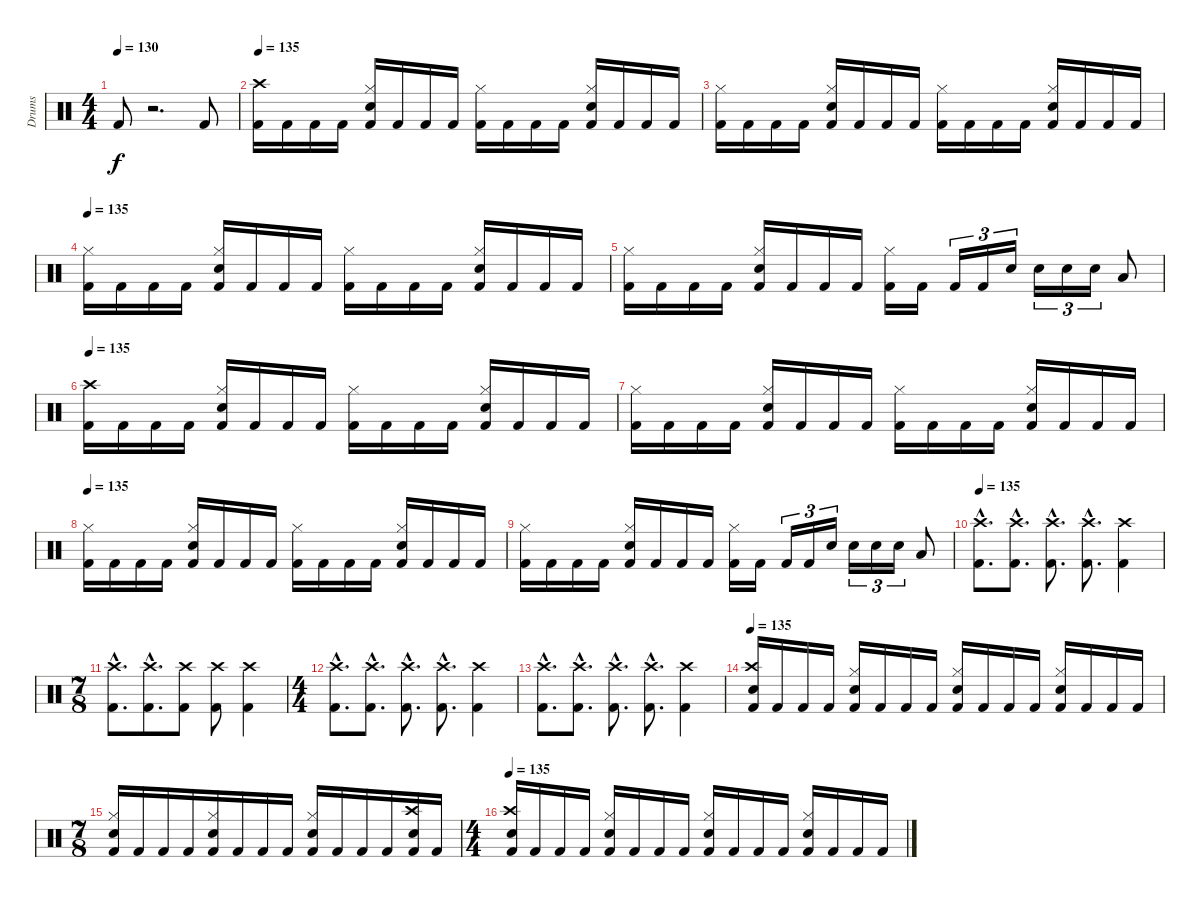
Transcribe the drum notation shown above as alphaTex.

\track ("Drums" "Drums") {instrument percussion}
\staff {score}
\articulation defaults
\ts (4 4)
\tempo 130
\clef neutral
\ks c "Kick (hit) 2".8{dy f}
r.2{d} "Kick (hit) 2".8 |
\tempo 135
("Crash high (hit)" "Kick (hit) 2").16 "Kick (hit) 2".16 "Kick (hit) 2".16 "Kick (hit) 2".16 ("Hi-Hat (closed)" "Electric Snare (hit)" "Kick (hit) 2").16 "Kick (hit) 2".16 "Kick (hit) 2".16 "Kick (hit) 2".16 ("Hi-Hat (closed)" "Kick (hit) 2").16 "Kick (hit) 2".16 "Kick (hit) 2".16 "Kick (hit) 2".16 ("Hi-Hat (closed)" "Electric Snare (hit)" "Kick (hit) 2").16 "Kick (hit) 2".16 "Kick (hit) 2".16 "Kick (hit) 2".16 |
("Hi-Hat (closed)" "Kick (hit) 2").16 "Kick (hit) 2".16 "Kick (hit) 2".16 "Kick (hit) 2".16 ("Hi-Hat (closed)" "Electric Snare (hit)" "Kick (hit) 2").16 "Kick (hit) 2".16 "Kick (hit) 2".16 "Kick (hit) 2".16 ("Hi-Hat (closed)" "Kick (hit) 2").16 "Kick (hit) 2".16 "Kick (hit) 2".16 "Kick (hit) 2".16 ("Hi-Hat (closed)" "Electric Snare (hit)" "Kick (hit) 2").16 "Kick (hit) 2".16 "Kick (hit) 2".16 "Kick (hit) 2".16 |
\tempo 135
("Hi-Hat (closed)" "Kick (hit) 2").16 "Kick (hit) 2".16 "Kick (hit) 2".16 "Kick (hit) 2".16 ("Hi-Hat (closed)" "Electric Snare (hit)" "Kick (hit) 2").16 "Kick (hit) 2".16 "Kick (hit) 2".16 "Kick (hit) 2".16 ("Hi-Hat (closed)" "Kick (hit) 2").16 "Kick (hit) 2".16 "Kick (hit) 2".16 "Kick (hit) 2".16 ("Hi-Hat (closed)" "Electric Snare (hit)" "Kick (hit) 2").16 "Kick (hit) 2".16 "Kick (hit) 2".16 "Kick (hit) 2".16 |
("Hi-Hat (closed)" "Kick (hit) 2").16 "Kick (hit) 2".16 "Kick (hit) 2".16 "Kick (hit) 2".16 ("Hi-Hat (closed)" "Electric Snare (hit)" "Kick (hit) 2").16 "Kick (hit) 2".16 "Kick (hit) 2".16 "Kick (hit) 2".16 ("Hi-Hat (closed)" "Kick (hit) 2").16 "Kick (hit) 2".16 "Kick (hit) 2".16{tu (3 2)} "Kick (hit) 2".16{tu (3 2)} "Electric Snare (hit)".16{tu (3 2)} "Electric Snare (hit)".16{tu (3 2)} "Electric Snare (hit)".16{tu (3 2)} "Electric Snare (hit)".16{tu (3 2)} "Low Tom (hit)".8 |
\tempo 135
("Crash high (hit)" "Kick (hit) 2").16 "Kick (hit) 2".16 "Kick (hit) 2".16 "Kick (hit) 2".16 ("Hi-Hat (closed)" "Electric Snare (hit)" "Kick (hit) 2").16 "Kick (hit) 2".16 "Kick (hit) 2".16 "Kick (hit) 2".16 ("Hi-Hat (closed)" "Kick (hit) 2").16 "Kick (hit) 2".16 "Kick (hit) 2".16 "Kick (hit) 2".16 ("Hi-Hat (closed)" "Electric Snare (hit)" "Kick (hit) 2").16 "Kick (hit) 2".16 "Kick (hit) 2".16 "Kick (hit) 2".16 |
("Hi-Hat (closed)" "Kick (hit) 2").16 "Kick (hit) 2".16 "Kick (hit) 2".16 "Kick (hit) 2".16 ("Hi-Hat (closed)" "Electric Snare (hit)" "Kick (hit) 2").16 "Kick (hit) 2".16 "Kick (hit) 2".16 "Kick (hit) 2".16 ("Hi-Hat (closed)" "Kick (hit) 2").16 "Kick (hit) 2".16 "Kick (hit) 2".16 "Kick (hit) 2".16 ("Hi-Hat (closed)" "Electric Snare (hit)" "Kick (hit) 2").16 "Kick (hit) 2".16 "Kick (hit) 2".16 "Kick (hit) 2".16 |
\tempo 135
("Hi-Hat (closed)" "Kick (hit) 2").16 "Kick (hit) 2".16 "Kick (hit) 2".16 "Kick (hit) 2".16 ("Hi-Hat (closed)" "Electric Snare (hit)" "Kick (hit) 2").16 "Kick (hit) 2".16 "Kick (hit) 2".16 "Kick (hit) 2".16 ("Hi-Hat (closed)" "Kick (hit) 2").16 "Kick (hit) 2".16 "Kick (hit) 2".16 "Kick (hit) 2".16 ("Hi-Hat (closed)" "Electric Snare (hit)" "Kick (hit) 2").16 "Kick (hit) 2".16 "Kick (hit) 2".16 "Kick (hit) 2".16 |
("Hi-Hat (closed)" "Kick (hit) 2").16 "Kick (hit) 2".16 "Kick (hit) 2".16 "Kick (hit) 2".16 ("Hi-Hat (closed)" "Electric Snare (hit)" "Kick (hit) 2").16 "Kick (hit) 2".16 "Kick (hit) 2".16 "Kick (hit) 2".16 ("Hi-Hat (closed)" "Kick (hit) 2").16 "Kick (hit) 2".16 "Kick (hit) 2".16{tu (3 2)} "Kick (hit) 2".16{tu (3 2)} "Electric Snare (hit)".16{tu (3 2)} "Electric Snare (hit)".16{tu (3 2)} "Electric Snare (hit)".16{tu (3 2)} "Electric Snare (hit)".16{tu (3 2)} "Low Tom (hit)".8 |
\tempo 135
("Crash high (hit)"{hac} "Kick (hit) 2"{hac}).8{d} ("Crash high (hit)"{hac} "Kick (hit) 2"{hac}).8{d} ("Crash high (hit)"{hac} "Kick (hit) 2"{hac}).8{d} ("Crash high (hit)"{hac} "Kick (hit) 2"{hac}).8{d} ("Crash high (hit)" "Kick (hit) 2").4 |
\ts (7 8)
("Crash high (hit)"{hac} "Kick (hit) 2"{hac}).8{d} ("Crash high (hit)"{hac} "Kick (hit) 2"{hac}).8{d} ("Crash high (hit)" "Kick (hit) 2").8 ("Crash high (hit)" "Kick (hit) 2").8 ("Crash high (hit)" "Kick (hit) 2").4 |
\ts (4 4)
("Crash high (hit)"{hac} "Kick (hit) 2"{hac}).8{d} ("Crash high (hit)"{hac} "Kick (hit) 2"{hac}).8{d} ("Crash high (hit)"{hac} "Kick (hit) 2"{hac}).8{d} ("Crash high (hit)"{hac} "Kick (hit) 2"{hac}).8{d} ("Crash high (hit)" "Kick (hit) 2").4 |
("Crash high (hit)"{hac} "Kick (hit) 2"{hac}).8{d} ("Crash high (hit)"{hac} "Kick (hit) 2"{hac}).8{d} ("Crash high (hit)"{hac} "Kick (hit) 2"{hac}).8{d} ("Crash high (hit)"{hac} "Kick (hit) 2"{hac}).8{d} ("Crash high (hit)" "Kick (hit) 2").4 |
\tempo 135
("Crash high (hit)" "Electric Snare (hit)" "Kick (hit) 2").16 "Kick (hit) 2".16 "Kick (hit) 2".16 "Kick (hit) 2".16 ("Hi-Hat (closed)" "Electric Snare (hit)" "Kick (hit) 2").16 "Kick (hit) 2".16 "Kick (hit) 2".16 "Kick (hit) 2".16 ("Hi-Hat (closed)" "Electric Snare (hit)" "Kick (hit) 2").16 "Kick (hit) 2".16 "Kick (hit) 2".16 "Kick (hit) 2".16 ("Hi-Hat (closed)" "Electric Snare (hit)" "Kick (hit) 2").16 "Kick (hit) 2".16 "Kick (hit) 2".16 "Kick (hit) 2".16 |
\ts (7 8)
("Hi-Hat (closed)" "Electric Snare (hit)" "Kick (hit) 2").16 "Kick (hit) 2".16 "Kick (hit) 2".16 "Kick (hit) 2".16 ("Hi-Hat (closed)" "Electric Snare (hit)" "Kick (hit) 2").16 "Kick (hit) 2".16 "Kick (hit) 2".16 "Kick (hit) 2".16 ("Hi-Hat (closed)" "Electric Snare (hit)" "Kick (hit) 2").16 "Kick (hit) 2".16 "Kick (hit) 2".16 "Kick (hit) 2".16 ("Crash high (hit)" "Electric Snare (hit)" "Kick (hit) 2").16 "Kick (hit) 2".16 |
\ts (4 4)
\tempo 135
("Crash high (hit)" "Electric Snare (hit)" "Kick (hit) 2").16 "Kick (hit) 2".16 "Kick (hit) 2".16 "Kick (hit) 2".16 ("Hi-Hat (closed)" "Electric Snare (hit)" "Kick (hit) 2").16 "Kick (hit) 2".16 "Kick (hit) 2".16 "Kick (hit) 2".16 ("Hi-Hat (closed)" "Electric Snare (hit)" "Kick (hit) 2").16 "Kick (hit) 2".16 "Kick (hit) 2".16 "Kick (hit) 2".16 ("Hi-Hat (closed)" "Electric Snare (hit)" "Kick (hit) 2").16 "Kick (hit) 2".16 "Kick (hit) 2".16 "Kick (hit) 2".16
